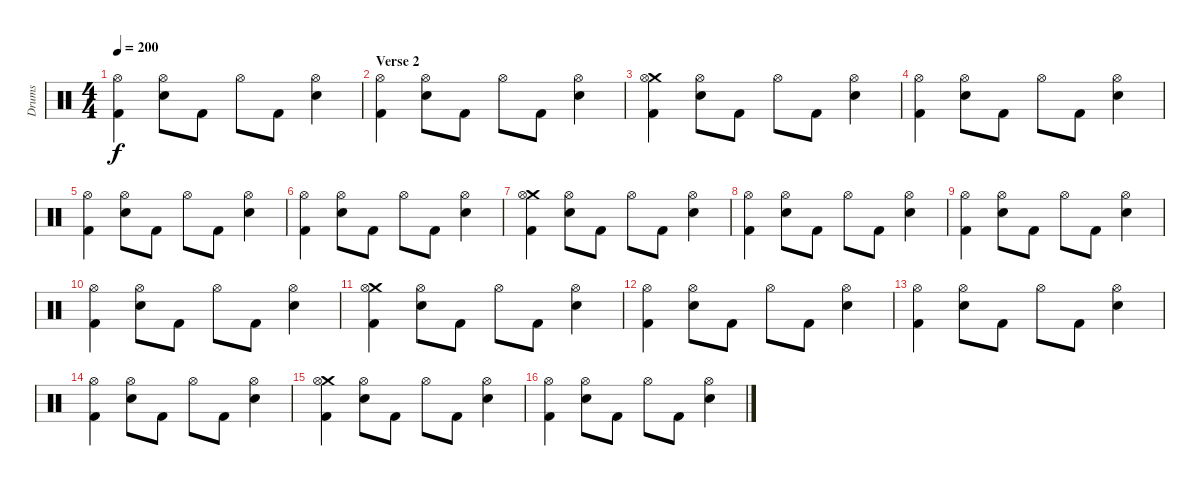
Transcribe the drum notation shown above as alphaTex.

\track ("Drums" "Drums") {instrument percussion}
\staff {score}
\articulation defaults
\ts (4 4)
\tempo 200
\clef neutral
\ks c
("Hi-Hat (open)" "Kick (hit) 2").4{dy f} ("Hi-Hat (open)" "Snare (hit) 2").8 "Kick (hit) 2".8 "Hi-Hat (open)".8 "Kick (hit) 2".8 ("Hi-Hat (open)" "Snare (hit) 2").4 |
\section ("" "Verse 2")
("Hi-Hat (open)" "Kick (hit) 2").4 ("Hi-Hat (open)" "Snare (hit) 2").8 "Kick (hit) 2".8 "Hi-Hat (open)".8 "Kick (hit) 2".8 ("Hi-Hat (open)" "Snare (hit) 2").4 |
("Crash medium (hit)" "Hi-Hat (open)" "Kick (hit) 2").4 ("Hi-Hat (open)" "Snare (hit) 2").8 "Kick (hit) 2".8 "Hi-Hat (open)".8 "Kick (hit) 2".8 ("Hi-Hat (open)" "Snare (hit) 2").4 |
("Hi-Hat (open)" "Kick (hit) 2").4 ("Hi-Hat (open)" "Snare (hit) 2").8 "Kick (hit) 2".8 "Hi-Hat (open)".8 "Kick (hit) 2".8 ("Hi-Hat (open)" "Snare (hit) 2").4 |
("Hi-Hat (open)" "Kick (hit) 2").4 ("Hi-Hat (open)" "Snare (hit) 2").8 "Kick (hit) 2".8 "Hi-Hat (open)".8 "Kick (hit) 2".8 ("Hi-Hat (open)" "Snare (hit) 2").4 |
("Hi-Hat (open)" "Kick (hit) 2").4 ("Hi-Hat (open)" "Snare (hit) 2").8 "Kick (hit) 2".8 "Hi-Hat (open)".8 "Kick (hit) 2".8 ("Hi-Hat (open)" "Snare (hit) 2").4 |
("Crash medium (hit)" "Hi-Hat (open)" "Kick (hit) 2").4 ("Hi-Hat (open)" "Snare (hit) 2").8 "Kick (hit) 2".8 "Hi-Hat (open)".8 "Kick (hit) 2".8 ("Hi-Hat (open)" "Snare (hit) 2").4 |
("Hi-Hat (open)" "Kick (hit) 2").4 ("Hi-Hat (open)" "Snare (hit) 2").8 "Kick (hit) 2".8 "Hi-Hat (open)".8 "Kick (hit) 2".8 ("Hi-Hat (open)" "Snare (hit) 2").4 |
("Hi-Hat (open)" "Kick (hit) 2").4 ("Hi-Hat (open)" "Snare (hit) 2").8 "Kick (hit) 2".8 "Hi-Hat (open)".8 "Kick (hit) 2".8 ("Hi-Hat (open)" "Snare (hit) 2").4 |
("Hi-Hat (open)" "Kick (hit) 2").4 ("Hi-Hat (open)" "Snare (hit) 2").8 "Kick (hit) 2".8 "Hi-Hat (open)".8 "Kick (hit) 2".8 ("Hi-Hat (open)" "Snare (hit) 2").4 |
("Crash medium (hit)" "Hi-Hat (open)" "Kick (hit) 2").4 ("Hi-Hat (open)" "Snare (hit) 2").8 "Kick (hit) 2".8 "Hi-Hat (open)".8 "Kick (hit) 2".8 ("Hi-Hat (open)" "Snare (hit) 2").4 |
("Hi-Hat (open)" "Kick (hit) 2").4 ("Hi-Hat (open)" "Snare (hit) 2").8 "Kick (hit) 2".8 "Hi-Hat (open)".8 "Kick (hit) 2".8 ("Hi-Hat (open)" "Snare (hit) 2").4 |
("Hi-Hat (open)" "Kick (hit) 2").4 ("Hi-Hat (open)" "Snare (hit) 2").8 "Kick (hit) 2".8 "Hi-Hat (open)".8 "Kick (hit) 2".8 ("Hi-Hat (open)" "Snare (hit) 2").4 |
("Hi-Hat (open)" "Kick (hit) 2").4 ("Hi-Hat (open)" "Snare (hit) 2").8 "Kick (hit) 2".8 "Hi-Hat (open)".8 "Kick (hit) 2".8 ("Hi-Hat (open)" "Snare (hit) 2").4 |
("Crash medium (hit)" "Hi-Hat (open)" "Kick (hit) 2").4 ("Hi-Hat (open)" "Snare (hit) 2").8 "Kick (hit) 2".8 "Hi-Hat (open)".8 "Kick (hit) 2".8 ("Hi-Hat (open)" "Snare (hit) 2").4 |
("Hi-Hat (open)" "Kick (hit) 2").4 ("Hi-Hat (open)" "Snare (hit) 2").8 "Kick (hit) 2".8 "Hi-Hat (open)".8 "Kick (hit) 2".8 ("Hi-Hat (open)" "Snare (hit) 2").4
